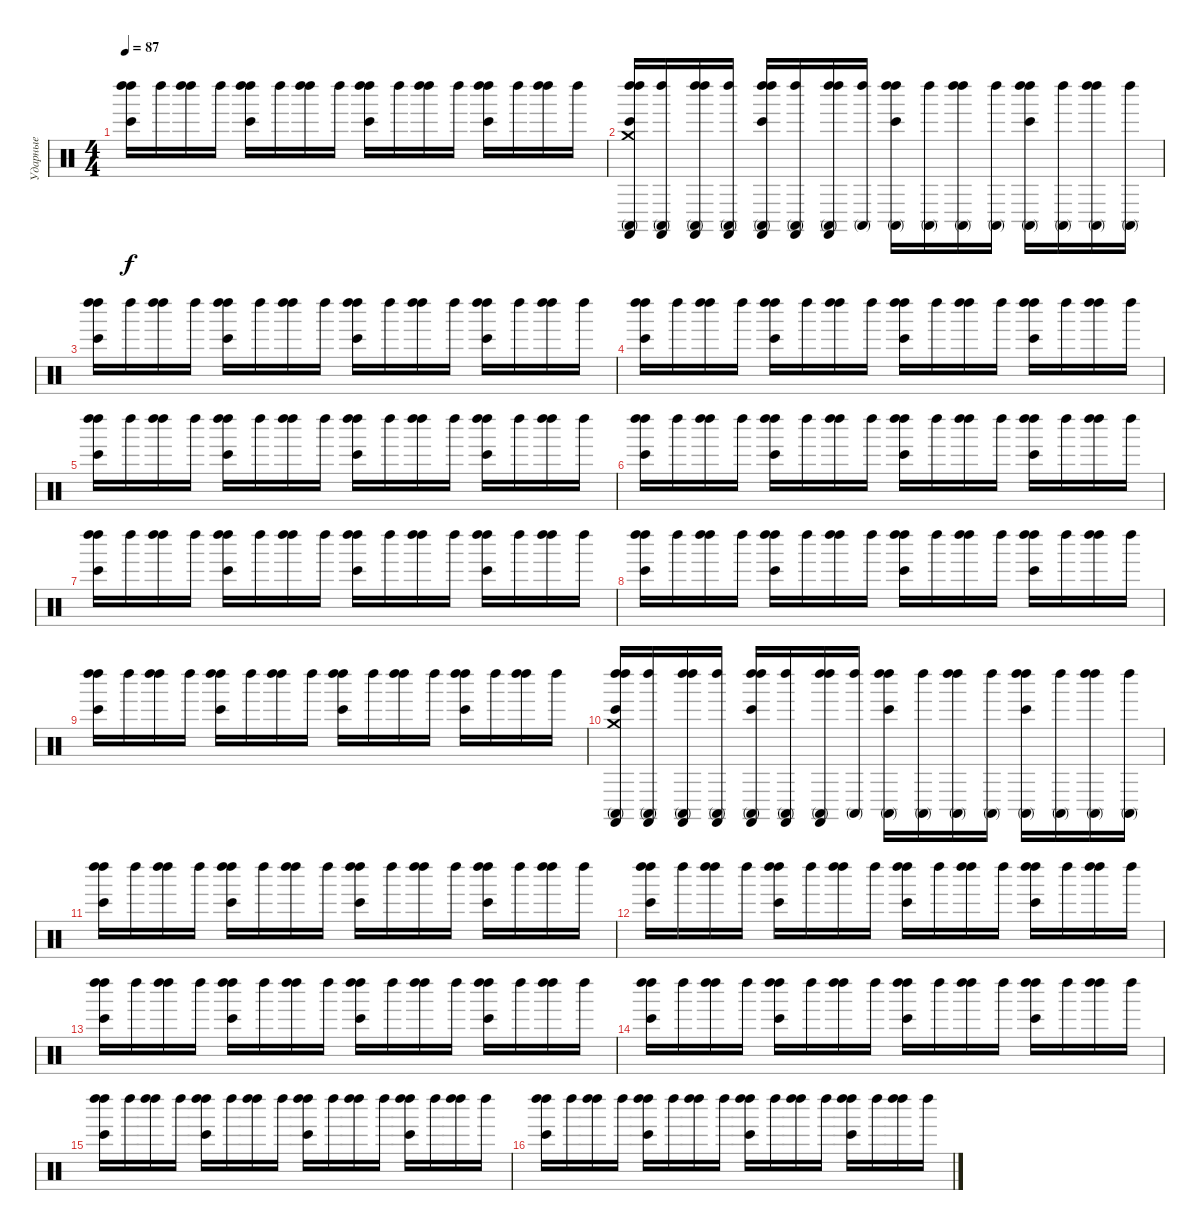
\track ("Ударные" "Ударные") {instrument percussion}
\staff {score}
\articulation defaults
\ts (4 4)
\tempo 87
\clef neutral
\ks c
("Left Maraca (hit)" "Left Maraca (hit)" "Bongo High (hit)").16{dy f} "Left Maraca (hit)".16 ("Left Maraca (hit)" "Left Maraca (hit)").16 "Left Maraca (hit)".16 ("Left Maraca (hit)" "Left Maraca (hit)" "Bongo High (hit)").16 "Left Maraca (hit)".16 ("Left Maraca (hit)" "Left Maraca (hit)").16 "Left Maraca (hit)".16 ("Left Maraca (hit)" "Left Maraca (hit)" "Bongo High (hit)").16 "Left Maraca (hit)".16 ("Left Maraca (hit)" "Left Maraca (hit)").16 "Left Maraca (hit)".16 ("Left Maraca (hit)" "Left Maraca (hit)" "Bongo High (hit)").16 "Left Maraca (hit)".16 ("Left Maraca (hit)" "Left Maraca (hit)").16 "Left Maraca (hit)".16 |
("Left Maraca (hit)" "Left Maraca (hit)" "Bongo High (hit)" "Conga high (mute)" "Crash medium (hit)" "Castanets (hit)").16 ("Left Maraca (hit)" "Conga high (mute)" "Castanets (hit)").16 ("Left Maraca (hit)" "Left Maraca (hit)" "Conga high (mute)" "Castanets (hit)").16 ("Left Maraca (hit)" "Conga high (mute)" "Castanets (hit)").16 ("Left Maraca (hit)" "Left Maraca (hit)" "Bongo High (hit)" "Conga high (mute)" "Castanets (hit)").16 ("Left Maraca (hit)" "Conga high (mute)" "Castanets (hit)").16 ("Left Maraca (hit)" "Left Maraca (hit)" "Conga high (mute)" "Castanets (hit)").16 ("Left Maraca (hit)" "Conga high (mute)").16 ("Left Maraca (hit)" "Left Maraca (hit)" "Bongo High (hit)" "Conga high (mute)").16 ("Left Maraca (hit)" "Conga high (mute)").16 ("Left Maraca (hit)" "Left Maraca (hit)" "Conga high (mute)").16 ("Left Maraca (hit)" "Conga high (mute)").16 ("Left Maraca (hit)" "Left Maraca (hit)" "Bongo High (hit)" "Conga high (mute)").16 ("Left Maraca (hit)" "Conga high (mute)").16 ("Left Maraca (hit)" "Left Maraca (hit)" "Conga high (mute)").16 ("Left Maraca (hit)" "Conga high (mute)").16 |
("Left Maraca (hit)" "Left Maraca (hit)" "Bongo High (hit)").16 "Left Maraca (hit)".16 ("Left Maraca (hit)" "Left Maraca (hit)").16 "Left Maraca (hit)".16 ("Left Maraca (hit)" "Left Maraca (hit)" "Bongo High (hit)").16 "Left Maraca (hit)".16 ("Left Maraca (hit)" "Left Maraca (hit)").16 "Left Maraca (hit)".16 ("Left Maraca (hit)" "Left Maraca (hit)" "Bongo High (hit)").16 "Left Maraca (hit)".16 ("Left Maraca (hit)" "Left Maraca (hit)").16 "Left Maraca (hit)".16 ("Left Maraca (hit)" "Left Maraca (hit)" "Bongo High (hit)").16 "Left Maraca (hit)".16 ("Left Maraca (hit)" "Left Maraca (hit)").16 "Left Maraca (hit)".16 |
("Left Maraca (hit)" "Left Maraca (hit)" "Bongo High (hit)").16 "Left Maraca (hit)".16 ("Left Maraca (hit)" "Left Maraca (hit)").16 "Left Maraca (hit)".16 ("Left Maraca (hit)" "Left Maraca (hit)" "Bongo High (hit)").16 "Left Maraca (hit)".16 ("Left Maraca (hit)" "Left Maraca (hit)").16 "Left Maraca (hit)".16 ("Left Maraca (hit)" "Left Maraca (hit)" "Bongo High (hit)").16 "Left Maraca (hit)".16 ("Left Maraca (hit)" "Left Maraca (hit)").16 "Left Maraca (hit)".16 ("Left Maraca (hit)" "Left Maraca (hit)" "Bongo High (hit)").16 "Left Maraca (hit)".16 ("Left Maraca (hit)" "Left Maraca (hit)").16 "Left Maraca (hit)".16 |
("Left Maraca (hit)" "Left Maraca (hit)" "Bongo High (hit)").16 "Left Maraca (hit)".16 ("Left Maraca (hit)" "Left Maraca (hit)").16 "Left Maraca (hit)".16 ("Left Maraca (hit)" "Left Maraca (hit)" "Bongo High (hit)").16 "Left Maraca (hit)".16 ("Left Maraca (hit)" "Left Maraca (hit)").16 "Left Maraca (hit)".16 ("Left Maraca (hit)" "Left Maraca (hit)" "Bongo High (hit)").16 "Left Maraca (hit)".16 ("Left Maraca (hit)" "Left Maraca (hit)").16 "Left Maraca (hit)".16 ("Left Maraca (hit)" "Left Maraca (hit)" "Bongo High (hit)").16 "Left Maraca (hit)".16 ("Left Maraca (hit)" "Left Maraca (hit)").16 "Left Maraca (hit)".16 |
("Left Maraca (hit)" "Left Maraca (hit)" "Bongo High (hit)").16 "Left Maraca (hit)".16 ("Left Maraca (hit)" "Left Maraca (hit)").16 "Left Maraca (hit)".16 ("Left Maraca (hit)" "Left Maraca (hit)" "Bongo High (hit)").16 "Left Maraca (hit)".16 ("Left Maraca (hit)" "Left Maraca (hit)").16 "Left Maraca (hit)".16 ("Left Maraca (hit)" "Left Maraca (hit)" "Bongo High (hit)").16 "Left Maraca (hit)".16 ("Left Maraca (hit)" "Left Maraca (hit)").16 "Left Maraca (hit)".16 ("Left Maraca (hit)" "Left Maraca (hit)" "Bongo High (hit)").16 "Left Maraca (hit)".16 ("Left Maraca (hit)" "Left Maraca (hit)").16 "Left Maraca (hit)".16 |
("Left Maraca (hit)" "Left Maraca (hit)" "Bongo High (hit)").16 "Left Maraca (hit)".16 ("Left Maraca (hit)" "Left Maraca (hit)").16 "Left Maraca (hit)".16 ("Left Maraca (hit)" "Left Maraca (hit)" "Bongo High (hit)").16 "Left Maraca (hit)".16 ("Left Maraca (hit)" "Left Maraca (hit)").16 "Left Maraca (hit)".16 ("Left Maraca (hit)" "Left Maraca (hit)" "Bongo High (hit)").16 "Left Maraca (hit)".16 ("Left Maraca (hit)" "Left Maraca (hit)").16 "Left Maraca (hit)".16 ("Left Maraca (hit)" "Left Maraca (hit)" "Bongo High (hit)").16 "Left Maraca (hit)".16 ("Left Maraca (hit)" "Left Maraca (hit)").16 "Left Maraca (hit)".16 |
("Left Maraca (hit)" "Left Maraca (hit)" "Bongo High (hit)").16 "Left Maraca (hit)".16 ("Left Maraca (hit)" "Left Maraca (hit)").16 "Left Maraca (hit)".16 ("Left Maraca (hit)" "Left Maraca (hit)" "Bongo High (hit)").16 "Left Maraca (hit)".16 ("Left Maraca (hit)" "Left Maraca (hit)").16 "Left Maraca (hit)".16 ("Left Maraca (hit)" "Left Maraca (hit)" "Bongo High (hit)").16 "Left Maraca (hit)".16 ("Left Maraca (hit)" "Left Maraca (hit)").16 "Left Maraca (hit)".16 ("Left Maraca (hit)" "Left Maraca (hit)" "Bongo High (hit)").16 "Left Maraca (hit)".16 ("Left Maraca (hit)" "Left Maraca (hit)").16 "Left Maraca (hit)".16 |
("Left Maraca (hit)" "Left Maraca (hit)" "Bongo High (hit)").16 "Left Maraca (hit)".16 ("Left Maraca (hit)" "Left Maraca (hit)").16 "Left Maraca (hit)".16 ("Left Maraca (hit)" "Left Maraca (hit)" "Bongo High (hit)").16 "Left Maraca (hit)".16 ("Left Maraca (hit)" "Left Maraca (hit)").16 "Left Maraca (hit)".16 ("Left Maraca (hit)" "Left Maraca (hit)" "Bongo High (hit)").16 "Left Maraca (hit)".16 ("Left Maraca (hit)" "Left Maraca (hit)").16 "Left Maraca (hit)".16 ("Left Maraca (hit)" "Left Maraca (hit)" "Bongo High (hit)").16 "Left Maraca (hit)".16 ("Left Maraca (hit)" "Left Maraca (hit)").16 "Left Maraca (hit)".16 |
("Left Maraca (hit)" "Left Maraca (hit)" "Bongo High (hit)" "Conga high (mute)" "Crash medium (hit)" "Castanets (hit)").16 ("Left Maraca (hit)" "Conga high (mute)" "Castanets (hit)").16 ("Left Maraca (hit)" "Left Maraca (hit)" "Conga high (mute)" "Castanets (hit)").16 ("Left Maraca (hit)" "Conga high (mute)" "Castanets (hit)").16 ("Left Maraca (hit)" "Left Maraca (hit)" "Bongo High (hit)" "Conga high (mute)" "Castanets (hit)").16 ("Left Maraca (hit)" "Conga high (mute)" "Castanets (hit)").16 ("Left Maraca (hit)" "Left Maraca (hit)" "Conga high (mute)" "Castanets (hit)").16 ("Left Maraca (hit)" "Conga high (mute)").16 ("Left Maraca (hit)" "Left Maraca (hit)" "Bongo High (hit)" "Conga high (mute)").16 ("Left Maraca (hit)" "Conga high (mute)").16 ("Left Maraca (hit)" "Left Maraca (hit)" "Conga high (mute)").16 ("Left Maraca (hit)" "Conga high (mute)").16 ("Left Maraca (hit)" "Left Maraca (hit)" "Bongo High (hit)" "Conga high (mute)").16 ("Left Maraca (hit)" "Conga high (mute)").16 ("Left Maraca (hit)" "Left Maraca (hit)" "Conga high (mute)").16 ("Left Maraca (hit)" "Conga high (mute)").16 |
("Left Maraca (hit)" "Left Maraca (hit)" "Bongo High (hit)").16 "Left Maraca (hit)".16 ("Left Maraca (hit)" "Left Maraca (hit)").16 "Left Maraca (hit)".16 ("Left Maraca (hit)" "Left Maraca (hit)" "Bongo High (hit)").16 "Left Maraca (hit)".16 ("Left Maraca (hit)" "Left Maraca (hit)").16 "Left Maraca (hit)".16 ("Left Maraca (hit)" "Left Maraca (hit)" "Bongo High (hit)").16 "Left Maraca (hit)".16 ("Left Maraca (hit)" "Left Maraca (hit)").16 "Left Maraca (hit)".16 ("Left Maraca (hit)" "Left Maraca (hit)" "Bongo High (hit)").16 "Left Maraca (hit)".16 ("Left Maraca (hit)" "Left Maraca (hit)").16 "Left Maraca (hit)".16 |
("Left Maraca (hit)" "Left Maraca (hit)" "Bongo High (hit)").16 "Left Maraca (hit)".16 ("Left Maraca (hit)" "Left Maraca (hit)").16 "Left Maraca (hit)".16 ("Left Maraca (hit)" "Left Maraca (hit)" "Bongo High (hit)").16 "Left Maraca (hit)".16 ("Left Maraca (hit)" "Left Maraca (hit)").16 "Left Maraca (hit)".16 ("Left Maraca (hit)" "Left Maraca (hit)" "Bongo High (hit)").16 "Left Maraca (hit)".16 ("Left Maraca (hit)" "Left Maraca (hit)").16 "Left Maraca (hit)".16 ("Left Maraca (hit)" "Left Maraca (hit)" "Bongo High (hit)").16 "Left Maraca (hit)".16 ("Left Maraca (hit)" "Left Maraca (hit)").16 "Left Maraca (hit)".16 |
("Left Maraca (hit)" "Left Maraca (hit)" "Bongo High (hit)").16 "Left Maraca (hit)".16 ("Left Maraca (hit)" "Left Maraca (hit)").16 "Left Maraca (hit)".16 ("Left Maraca (hit)" "Left Maraca (hit)" "Bongo High (hit)").16 "Left Maraca (hit)".16 ("Left Maraca (hit)" "Left Maraca (hit)").16 "Left Maraca (hit)".16 ("Left Maraca (hit)" "Left Maraca (hit)" "Bongo High (hit)").16 "Left Maraca (hit)".16 ("Left Maraca (hit)" "Left Maraca (hit)").16 "Left Maraca (hit)".16 ("Left Maraca (hit)" "Left Maraca (hit)" "Bongo High (hit)").16 "Left Maraca (hit)".16 ("Left Maraca (hit)" "Left Maraca (hit)").16 "Left Maraca (hit)".16 |
("Left Maraca (hit)" "Left Maraca (hit)" "Bongo High (hit)").16 "Left Maraca (hit)".16 ("Left Maraca (hit)" "Left Maraca (hit)").16 "Left Maraca (hit)".16 ("Left Maraca (hit)" "Left Maraca (hit)" "Bongo High (hit)").16 "Left Maraca (hit)".16 ("Left Maraca (hit)" "Left Maraca (hit)").16 "Left Maraca (hit)".16 ("Left Maraca (hit)" "Left Maraca (hit)" "Bongo High (hit)").16 "Left Maraca (hit)".16 ("Left Maraca (hit)" "Left Maraca (hit)").16 "Left Maraca (hit)".16 ("Left Maraca (hit)" "Left Maraca (hit)" "Bongo High (hit)").16 "Left Maraca (hit)".16 ("Left Maraca (hit)" "Left Maraca (hit)").16 "Left Maraca (hit)".16 |
("Left Maraca (hit)" "Left Maraca (hit)" "Bongo High (hit)").16 "Left Maraca (hit)".16 ("Left Maraca (hit)" "Left Maraca (hit)").16 "Left Maraca (hit)".16 ("Left Maraca (hit)" "Left Maraca (hit)" "Bongo High (hit)").16 "Left Maraca (hit)".16 ("Left Maraca (hit)" "Left Maraca (hit)").16 "Left Maraca (hit)".16 ("Left Maraca (hit)" "Left Maraca (hit)" "Bongo High (hit)").16 "Left Maraca (hit)".16 ("Left Maraca (hit)" "Left Maraca (hit)").16 "Left Maraca (hit)".16 ("Left Maraca (hit)" "Left Maraca (hit)" "Bongo High (hit)").16 "Left Maraca (hit)".16 ("Left Maraca (hit)" "Left Maraca (hit)").16 "Left Maraca (hit)".16 |
("Left Maraca (hit)" "Left Maraca (hit)" "Bongo High (hit)").16 "Left Maraca (hit)".16 ("Left Maraca (hit)" "Left Maraca (hit)").16 "Left Maraca (hit)".16 ("Left Maraca (hit)" "Left Maraca (hit)" "Bongo High (hit)").16 "Left Maraca (hit)".16 ("Left Maraca (hit)" "Left Maraca (hit)").16 "Left Maraca (hit)".16 ("Left Maraca (hit)" "Left Maraca (hit)" "Bongo High (hit)").16 "Left Maraca (hit)".16 ("Left Maraca (hit)" "Left Maraca (hit)").16 "Left Maraca (hit)".16 ("Left Maraca (hit)" "Left Maraca (hit)" "Bongo High (hit)").16 "Left Maraca (hit)".16 ("Left Maraca (hit)" "Left Maraca (hit)").16 "Left Maraca (hit)".16
